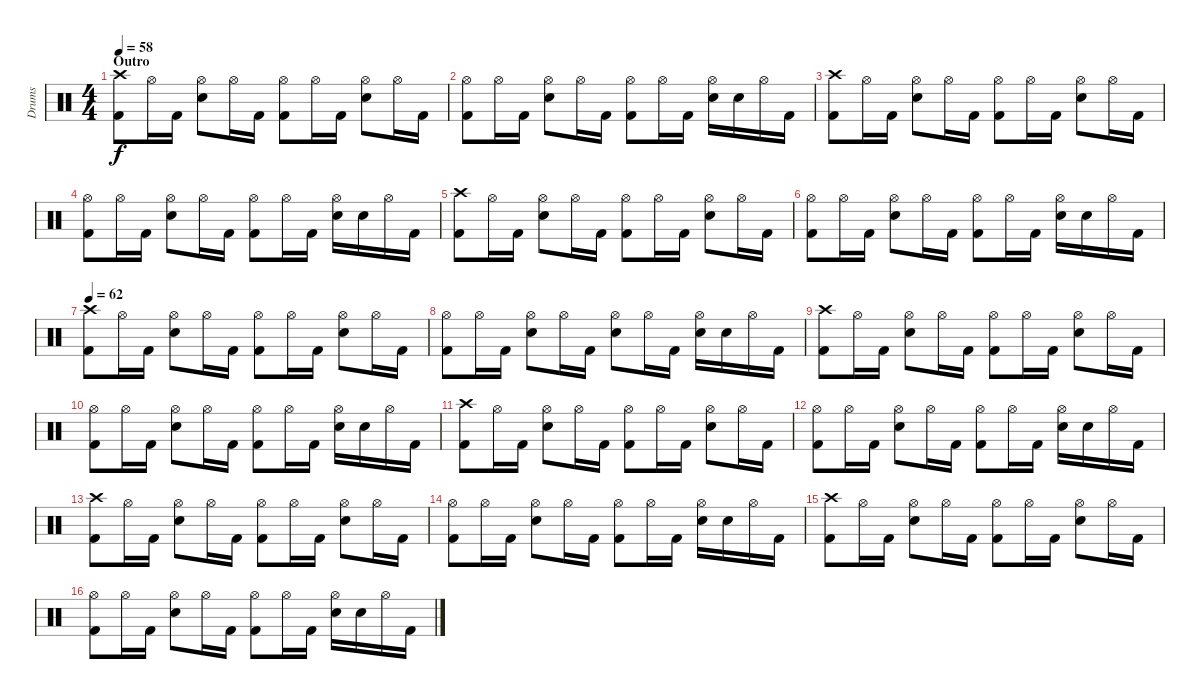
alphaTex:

\track ("Drums" "Drums") {instrument percussion}
\staff {score}
\articulation defaults
\ts (4 4)
\section ("" "Outro")
\tempo 58
\clef neutral
\ks c
("Crash high (hit)" "Kick (hit) 2").8{dy f} "Hi-Hat (open)".16 "Kick (hit) 2".16 ("Hi-Hat (open)" "Electric Snare (hit)").8 "Hi-Hat (open)".16 "Kick (hit) 2".16 ("Hi-Hat (open)" "Kick (hit) 2").8 "Hi-Hat (open)".16 "Kick (hit) 2".16 ("Hi-Hat (open)" "Electric Snare (hit)").8 "Hi-Hat (open)".16 "Kick (hit) 2".16 |
("Hi-Hat (open)" "Kick (hit) 2").8 "Hi-Hat (open)".16 "Kick (hit) 2".16 ("Hi-Hat (open)" "Electric Snare (hit)").8 "Hi-Hat (open)".16 "Kick (hit) 2".16 ("Hi-Hat (open)" "Kick (hit) 2").8 "Hi-Hat (open)".16 "Kick (hit) 2".16 ("Hi-Hat (open)" "Electric Snare (hit)").16 "Electric Snare (hit)".16 "Hi-Hat (open)".16 "Kick (hit) 2".16 |
("Crash high (hit)" "Kick (hit) 2").8 "Hi-Hat (open)".16 "Kick (hit) 2".16 ("Hi-Hat (open)" "Electric Snare (hit)").8 "Hi-Hat (open)".16 "Kick (hit) 2".16 ("Hi-Hat (open)" "Kick (hit) 2").8 "Hi-Hat (open)".16 "Kick (hit) 2".16 ("Hi-Hat (open)" "Electric Snare (hit)").8 "Hi-Hat (open)".16 "Kick (hit) 2".16 |
("Hi-Hat (open)" "Kick (hit) 2").8 "Hi-Hat (open)".16 "Kick (hit) 2".16 ("Hi-Hat (open)" "Electric Snare (hit)").8 "Hi-Hat (open)".16 "Kick (hit) 2".16 ("Hi-Hat (open)" "Kick (hit) 2").8 "Hi-Hat (open)".16 "Kick (hit) 2".16 ("Hi-Hat (open)" "Electric Snare (hit)").16 "Electric Snare (hit)".16 "Hi-Hat (open)".16 "Kick (hit) 2".16 |
("Crash high (hit)" "Kick (hit) 2").8 "Hi-Hat (open)".16 "Kick (hit) 2".16 ("Hi-Hat (open)" "Electric Snare (hit)").8 "Hi-Hat (open)".16 "Kick (hit) 2".16 ("Hi-Hat (open)" "Kick (hit) 2").8 "Hi-Hat (open)".16 "Kick (hit) 2".16 ("Hi-Hat (open)" "Electric Snare (hit)").8 "Hi-Hat (open)".16 "Kick (hit) 2".16 |
("Hi-Hat (open)" "Kick (hit) 2").8 "Hi-Hat (open)".16 "Kick (hit) 2".16 ("Hi-Hat (open)" "Electric Snare (hit)").8 "Hi-Hat (open)".16 "Kick (hit) 2".16 ("Hi-Hat (open)" "Kick (hit) 2").8 "Hi-Hat (open)".16 "Kick (hit) 2".16 ("Hi-Hat (open)" "Electric Snare (hit)").16 "Electric Snare (hit)".16 "Hi-Hat (open)".16 "Kick (hit) 2".16 |
\tempo 62
("Crash high (hit)" "Kick (hit) 2").8 "Hi-Hat (open)".16 "Kick (hit) 2".16 ("Hi-Hat (open)" "Electric Snare (hit)").8 "Hi-Hat (open)".16 "Kick (hit) 2".16 ("Hi-Hat (open)" "Kick (hit) 2").8 "Hi-Hat (open)".16 "Kick (hit) 2".16 ("Hi-Hat (open)" "Electric Snare (hit)").8 "Hi-Hat (open)".16 "Kick (hit) 2".16 |
("Hi-Hat (open)" "Kick (hit) 2").8 "Hi-Hat (open)".16 "Kick (hit) 2".16 ("Hi-Hat (open)" "Electric Snare (hit)").8 "Hi-Hat (open)".16 "Kick (hit) 2".16 ("Hi-Hat (open)" "Electric Snare (hit)").8 "Hi-Hat (open)".16 "Kick (hit) 2".16 ("Hi-Hat (open)" "Electric Snare (hit)").16 "Electric Snare (hit)".16 "Hi-Hat (open)".16 "Kick (hit) 2".16 |
("Crash high (hit)" "Kick (hit) 2").8 "Hi-Hat (open)".16 "Kick (hit) 2".16 ("Hi-Hat (open)" "Electric Snare (hit)").8 "Hi-Hat (open)".16 "Kick (hit) 2".16 ("Hi-Hat (open)" "Kick (hit) 2").8 "Hi-Hat (open)".16 "Kick (hit) 2".16 ("Hi-Hat (open)" "Electric Snare (hit)").8 "Hi-Hat (open)".16 "Kick (hit) 2".16 |
("Hi-Hat (open)" "Kick (hit) 2").8 "Hi-Hat (open)".16 "Kick (hit) 2".16 ("Hi-Hat (open)" "Electric Snare (hit)").8 "Hi-Hat (open)".16 "Kick (hit) 2".16 ("Hi-Hat (open)" "Kick (hit) 2").8 "Hi-Hat (open)".16 "Kick (hit) 2".16 ("Hi-Hat (open)" "Electric Snare (hit)").16 "Electric Snare (hit)".16 "Hi-Hat (open)".16 "Kick (hit) 2".16 |
("Crash high (hit)" "Kick (hit) 2").8 "Hi-Hat (open)".16 "Kick (hit) 2".16 ("Hi-Hat (open)" "Electric Snare (hit)").8 "Hi-Hat (open)".16 "Kick (hit) 2".16 ("Hi-Hat (open)" "Kick (hit) 2").8 "Hi-Hat (open)".16 "Kick (hit) 2".16 ("Hi-Hat (open)" "Electric Snare (hit)").8 "Hi-Hat (open)".16 "Kick (hit) 2".16 |
("Hi-Hat (open)" "Kick (hit) 2").8 "Hi-Hat (open)".16 "Kick (hit) 2".16 ("Hi-Hat (open)" "Electric Snare (hit)").8 "Hi-Hat (open)".16 "Kick (hit) 2".16 ("Hi-Hat (open)" "Kick (hit) 2").8 "Hi-Hat (open)".16 "Kick (hit) 2".16 ("Hi-Hat (open)" "Electric Snare (hit)").16 "Electric Snare (hit)".16 "Hi-Hat (open)".16 "Kick (hit) 2".16 |
("Crash high (hit)" "Kick (hit) 2").8 "Hi-Hat (open)".16 "Kick (hit) 2".16 ("Hi-Hat (open)" "Electric Snare (hit)").8 "Hi-Hat (open)".16 "Kick (hit) 2".16 ("Hi-Hat (open)" "Kick (hit) 2").8 "Hi-Hat (open)".16 "Kick (hit) 2".16 ("Hi-Hat (open)" "Electric Snare (hit)").8 "Hi-Hat (open)".16 "Kick (hit) 2".16 |
("Hi-Hat (open)" "Kick (hit) 2").8 "Hi-Hat (open)".16 "Kick (hit) 2".16 ("Hi-Hat (open)" "Electric Snare (hit)").8 "Hi-Hat (open)".16 "Kick (hit) 2".16 ("Hi-Hat (open)" "Kick (hit) 2").8 "Hi-Hat (open)".16 "Kick (hit) 2".16 ("Hi-Hat (open)" "Electric Snare (hit)").16 "Electric Snare (hit)".16 "Hi-Hat (open)".16 "Kick (hit) 2".16 |
("Crash high (hit)" "Kick (hit) 2").8 "Hi-Hat (open)".16 "Kick (hit) 2".16 ("Hi-Hat (open)" "Electric Snare (hit)").8 "Hi-Hat (open)".16 "Kick (hit) 2".16 ("Hi-Hat (open)" "Kick (hit) 2").8 "Hi-Hat (open)".16 "Kick (hit) 2".16 ("Hi-Hat (open)" "Electric Snare (hit)").8 "Hi-Hat (open)".16 "Kick (hit) 2".16 |
("Hi-Hat (open)" "Kick (hit) 2").8 "Hi-Hat (open)".16 "Kick (hit) 2".16 ("Hi-Hat (open)" "Electric Snare (hit)").8 "Hi-Hat (open)".16 "Kick (hit) 2".16 ("Hi-Hat (open)" "Kick (hit) 2").8 "Hi-Hat (open)".16 "Kick (hit) 2".16 ("Hi-Hat (open)" "Electric Snare (hit)").16 "Electric Snare (hit)".16 "Hi-Hat (open)".16 "Kick (hit) 2".16
